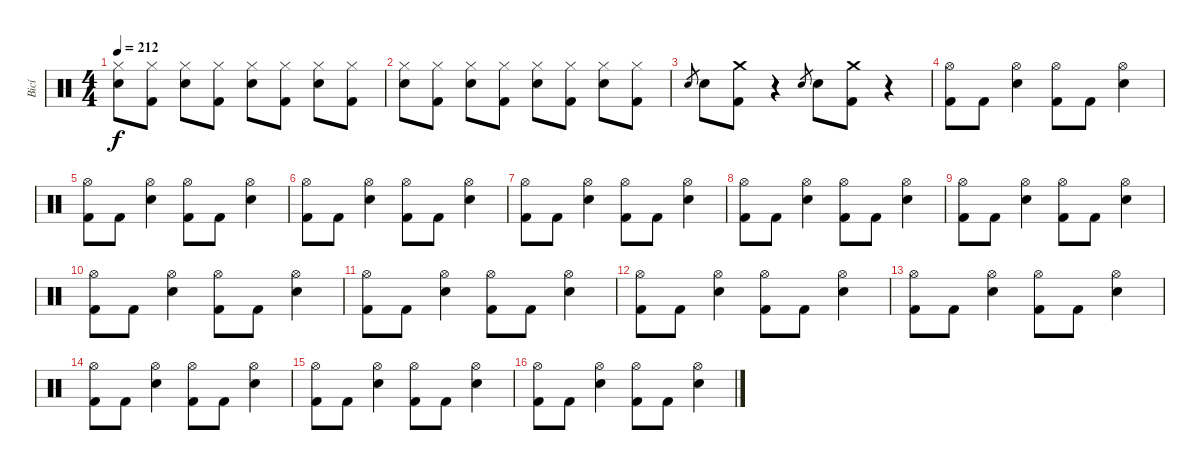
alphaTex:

\track ("Bicí" "Bicí") {instrument percussion}
\staff {score}
\articulation defaults
\ts (4 4)
\tempo 212
\clef neutral
\ks c
("Hi-Hat (closed)" "Snare (hit) 2").8{dy f} ("Hi-Hat (closed)" "Kick (hit) 2").8 ("Hi-Hat (closed)" "Snare (hit) 2").8 ("Hi-Hat (closed)" "Kick (hit) 2").8 ("Hi-Hat (closed)" "Snare (hit) 2").8 ("Hi-Hat (closed)" "Kick (hit) 2").8 ("Hi-Hat (closed)" "Snare (hit) 2").8 ("Hi-Hat (closed)" "Kick (hit) 2").8 |
("Hi-Hat (closed)" "Snare (hit) 2").8 ("Hi-Hat (closed)" "Kick (hit) 2").8 ("Hi-Hat (closed)" "Snare (hit) 2").8 ("Hi-Hat (closed)" "Kick (hit) 2").8 ("Hi-Hat (closed)" "Snare (hit) 2").8 ("Hi-Hat (closed)" "Kick (hit) 2").8 ("Hi-Hat (closed)" "Snare (hit) 2").8 ("Hi-Hat (closed)" "Kick (hit) 2").8 |
"Snare (hit) 2".8{gr} "Snare (hit) 2".8 ("Crash medium (hit)" "Kick (hit) 2").8 r.4 "Snare (hit) 2".8{gr} "Snare (hit) 2".8 ("Crash medium (hit)" "Kick (hit) 2").8 r.4 |
("Kick (hit) 2" "Hi-Hat (open)").8 "Kick (hit) 2".8 ("Snare (hit) 2" "Hi-Hat (open)").4 ("Kick (hit) 2" "Hi-Hat (open)").8 "Kick (hit) 2".8 ("Snare (hit) 2" "Hi-Hat (open)").4 |
("Kick (hit) 2" "Hi-Hat (open)").8 "Kick (hit) 2".8 ("Snare (hit) 2" "Hi-Hat (open)").4 ("Kick (hit) 2" "Hi-Hat (open)").8 "Kick (hit) 2".8 ("Snare (hit) 2" "Hi-Hat (open)").4 |
("Kick (hit) 2" "Hi-Hat (open)").8 "Kick (hit) 2".8 ("Snare (hit) 2" "Hi-Hat (open)").4 ("Kick (hit) 2" "Hi-Hat (open)").8 "Kick (hit) 2".8 ("Snare (hit) 2" "Hi-Hat (open)").4 |
("Kick (hit) 2" "Hi-Hat (open)").8 "Kick (hit) 2".8 ("Snare (hit) 2" "Hi-Hat (open)").4 ("Kick (hit) 2" "Hi-Hat (open)").8 "Kick (hit) 2".8 ("Snare (hit) 2" "Hi-Hat (open)").4 |
("Kick (hit) 2" "Hi-Hat (open)").8 "Kick (hit) 2".8 ("Snare (hit) 2" "Hi-Hat (open)").4 ("Kick (hit) 2" "Hi-Hat (open)").8 "Kick (hit) 2".8 ("Snare (hit) 2" "Hi-Hat (open)").4 |
("Kick (hit) 2" "Hi-Hat (open)").8 "Kick (hit) 2".8 ("Snare (hit) 2" "Hi-Hat (open)").4 ("Kick (hit) 2" "Hi-Hat (open)").8 "Kick (hit) 2".8 ("Snare (hit) 2" "Hi-Hat (open)").4 |
("Kick (hit) 2" "Hi-Hat (open)").8 "Kick (hit) 2".8 ("Snare (hit) 2" "Hi-Hat (open)").4 ("Kick (hit) 2" "Hi-Hat (open)").8 "Kick (hit) 2".8 ("Snare (hit) 2" "Hi-Hat (open)").4 |
("Kick (hit) 2" "Hi-Hat (open)").8 "Kick (hit) 2".8 ("Snare (hit) 2" "Hi-Hat (open)").4 ("Kick (hit) 2" "Hi-Hat (open)").8 "Kick (hit) 2".8 ("Snare (hit) 2" "Hi-Hat (open)").4 |
("Kick (hit) 2" "Hi-Hat (open)").8 "Kick (hit) 2".8 ("Snare (hit) 2" "Hi-Hat (open)").4 ("Kick (hit) 2" "Hi-Hat (open)").8 "Kick (hit) 2".8 ("Snare (hit) 2" "Hi-Hat (open)").4 |
("Kick (hit) 2" "Hi-Hat (open)").8 "Kick (hit) 2".8 ("Snare (hit) 2" "Hi-Hat (open)").4 ("Kick (hit) 2" "Hi-Hat (open)").8 "Kick (hit) 2".8 ("Snare (hit) 2" "Hi-Hat (open)").4 |
("Kick (hit) 2" "Hi-Hat (open)").8 "Kick (hit) 2".8 ("Snare (hit) 2" "Hi-Hat (open)").4 ("Kick (hit) 2" "Hi-Hat (open)").8 "Kick (hit) 2".8 ("Snare (hit) 2" "Hi-Hat (open)").4 |
("Kick (hit) 2" "Hi-Hat (open)").8 "Kick (hit) 2".8 ("Snare (hit) 2" "Hi-Hat (open)").4 ("Kick (hit) 2" "Hi-Hat (open)").8 "Kick (hit) 2".8 ("Snare (hit) 2" "Hi-Hat (open)").4 |
("Kick (hit) 2" "Hi-Hat (open)").8 "Kick (hit) 2".8 ("Snare (hit) 2" "Hi-Hat (open)").4 ("Kick (hit) 2" "Hi-Hat (open)").8 "Kick (hit) 2".8 ("Snare (hit) 2" "Hi-Hat (open)").4
